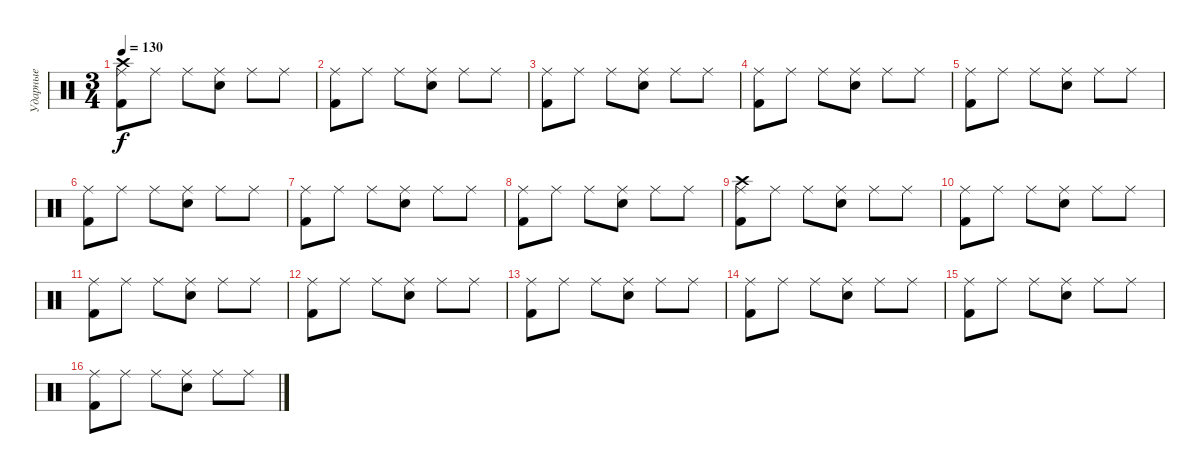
\track ("Ударные" "Ударные") {instrument percussion}
\staff {score}
\articulation defaults
\ts (3 4)
\tempo 130
\clef neutral
\ks c
("Ride (middle)" "Crash high (hit)" "Kick (hit) 2").8{dy f} "Ride (middle)".8 "Ride (middle)".8 ("Ride (middle)" "Snare (hit) 2").8 "Ride (middle)".8 "Ride (middle)".8 |
("Ride (middle)" "Kick (hit) 2").8 "Ride (middle)".8 "Ride (middle)".8 ("Ride (middle)" "Snare (hit) 2").8 "Ride (middle)".8 "Ride (middle)".8 |
("Ride (middle)" "Kick (hit) 2").8 "Ride (middle)".8 "Ride (middle)".8 ("Ride (middle)" "Snare (hit) 2").8 "Ride (middle)".8 "Ride (middle)".8 |
("Ride (middle)" "Kick (hit) 2").8 "Ride (middle)".8 "Ride (middle)".8 ("Ride (middle)" "Snare (hit) 2").8 "Ride (middle)".8 "Ride (middle)".8 |
("Ride (middle)" "Kick (hit) 2").8 "Ride (middle)".8 "Ride (middle)".8 ("Ride (middle)" "Snare (hit) 2").8 "Ride (middle)".8 "Ride (middle)".8 |
("Ride (middle)" "Kick (hit) 2").8 "Ride (middle)".8 "Ride (middle)".8 ("Ride (middle)" "Snare (hit) 2").8 "Ride (middle)".8 "Ride (middle)".8 |
("Ride (middle)" "Kick (hit) 2").8 "Ride (middle)".8 "Ride (middle)".8 ("Ride (middle)" "Snare (hit) 2").8 "Ride (middle)".8 "Ride (middle)".8 |
("Ride (middle)" "Kick (hit) 2").8 "Ride (middle)".8 "Ride (middle)".8 ("Ride (middle)" "Snare (hit) 2").8 "Ride (middle)".8 "Ride (middle)".8 |
("Ride (middle)" "Crash high (hit)" "Kick (hit) 2").8 "Ride (middle)".8 "Ride (middle)".8 ("Ride (middle)" "Snare (hit) 2").8 "Ride (middle)".8 "Ride (middle)".8 |
("Ride (middle)" "Kick (hit) 2").8 "Ride (middle)".8 "Ride (middle)".8 ("Ride (middle)" "Snare (hit) 2").8 "Ride (middle)".8 "Ride (middle)".8 |
("Ride (middle)" "Kick (hit) 2").8 "Ride (middle)".8 "Ride (middle)".8 ("Ride (middle)" "Snare (hit) 2").8 "Ride (middle)".8 "Ride (middle)".8 |
("Ride (middle)" "Kick (hit) 2").8 "Ride (middle)".8 "Ride (middle)".8 ("Ride (middle)" "Snare (hit) 2").8 "Ride (middle)".8 "Ride (middle)".8 |
("Ride (middle)" "Kick (hit) 2").8 "Ride (middle)".8 "Ride (middle)".8 ("Ride (middle)" "Snare (hit) 2").8 "Ride (middle)".8 "Ride (middle)".8 |
("Ride (middle)" "Kick (hit) 2").8 "Ride (middle)".8 "Ride (middle)".8 ("Ride (middle)" "Snare (hit) 2").8 "Ride (middle)".8 "Ride (middle)".8 |
("Ride (middle)" "Kick (hit) 2").8 "Ride (middle)".8 "Ride (middle)".8 ("Ride (middle)" "Snare (hit) 2").8 "Ride (middle)".8 "Ride (middle)".8 |
("Ride (middle)" "Kick (hit) 2").8 "Ride (middle)".8 "Ride (middle)".8 ("Ride (middle)" "Snare (hit) 2").8 "Ride (middle)".8 "Ride (middle)".8
